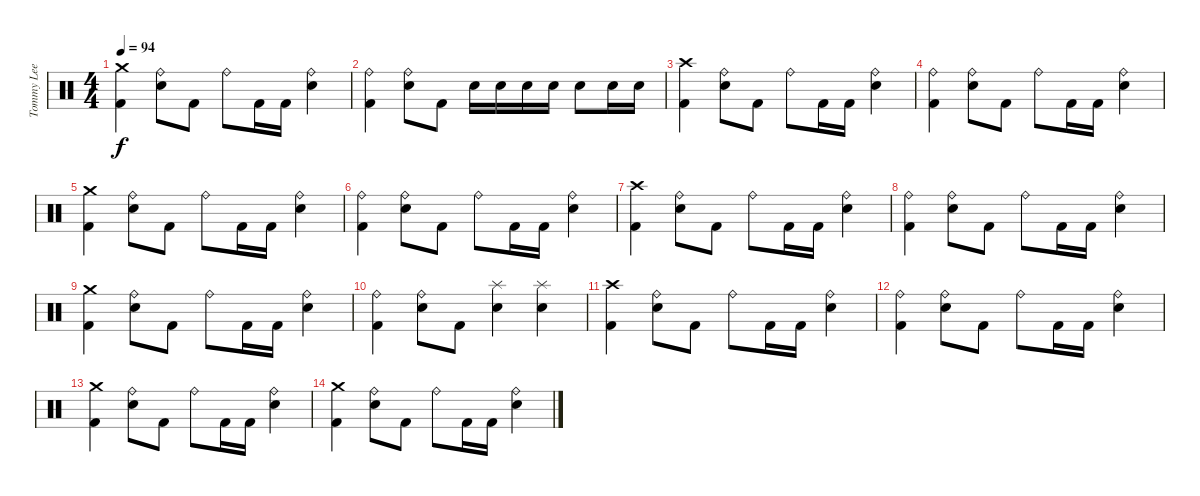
\track ("Tommy Lee" "Tommy Lee") {instrument percussion}
\staff {score}
\articulation defaults
\ts (4 4)
\tempo 94
\clef neutral
\ks c
("Crash medium (hit)" "Kick (hit) 2").4{dy f} ("Ride (bell)" "Snare (hit) 2").8 "Kick (hit) 2".8 "Ride (bell)".8 "Kick (hit) 2".16 "Kick (hit) 2".16 ("Ride (bell)" "Snare (hit) 2").4 |
("Ride (bell)" "Kick (hit) 2").4 ("Ride (bell)" "Snare (hit) 2").8 "Kick (hit) 2".8 "Snare (hit) 2".16 "Snare (hit) 2".16 "Snare (hit) 2".16 "Snare (hit) 2".16 "Snare (hit) 2".8 "Snare (hit) 2".16 "Snare (hit) 2".16 |
("Crash high (hit)" "Kick (hit) 2").4 ("Ride (bell)" "Snare (hit) 2").8 "Kick (hit) 2".8 "Ride (bell)".8 "Kick (hit) 2".16 "Kick (hit) 2".16 ("Ride (bell)" "Snare (hit) 2").4 |
("Ride (bell)" "Kick (hit) 2").4 ("Ride (bell)" "Snare (hit) 2").8 "Kick (hit) 2".8 "Ride (bell)".8 "Kick (hit) 2".16 "Kick (hit) 2".16 ("Ride (bell)" "Snare (hit) 2").4 |
("Crash medium (hit)" "Kick (hit) 2").4 ("Ride (bell)" "Snare (hit) 2").8 "Kick (hit) 2".8 "Ride (bell)".8 "Kick (hit) 2".16 "Kick (hit) 2".16 ("Ride (bell)" "Snare (hit) 2").4 |
("Ride (bell)" "Kick (hit) 2").4 ("Ride (bell)" "Snare (hit) 2").8 "Kick (hit) 2".8 "Ride (bell)".8 "Kick (hit) 2".16 "Kick (hit) 2".16 ("Ride (bell)" "Snare (hit) 2").4 |
("Crash high (hit)" "Kick (hit) 2").4 ("Ride (bell)" "Snare (hit) 2").8 "Kick (hit) 2".8 "Ride (bell)".8 "Kick (hit) 2".16 "Kick (hit) 2".16 ("Ride (bell)" "Snare (hit) 2").4 |
("Ride (bell)" "Kick (hit) 2").4 ("Ride (bell)" "Snare (hit) 2").8 "Kick (hit) 2".8 "Ride (bell)".8 "Kick (hit) 2".16 "Kick (hit) 2".16 ("Ride (bell)" "Snare (hit) 2").4 |
("Crash medium (hit)" "Kick (hit) 2").4 ("Ride (bell)" "Snare (hit) 2").8 "Kick (hit) 2".8 "Ride (bell)".8 "Kick (hit) 2".16 "Kick (hit) 2".16 ("Ride (bell)" "Snare (hit) 2").4 |
("Ride (bell)" "Kick (hit) 2").4 ("Ride (bell)" "Snare (hit) 2").8 "Kick (hit) 2".8 ("Splash (hit)" "Snare (hit) 2").4 ("Splash (hit)" "Snare (hit) 2").4 |
("Crash high (hit)" "Kick (hit) 2").4 ("Ride (bell)" "Snare (hit) 2").8 "Kick (hit) 2".8 "Ride (bell)".8 "Kick (hit) 2".16 "Kick (hit) 2".16 ("Ride (bell)" "Snare (hit) 2").4 |
("Ride (bell)" "Kick (hit) 2").4 ("Ride (bell)" "Snare (hit) 2").8 "Kick (hit) 2".8 "Ride (bell)".8 "Kick (hit) 2".16 "Kick (hit) 2".16 ("Ride (bell)" "Snare (hit) 2").4 |
("Crash medium (hit)" "Kick (hit) 2").4 ("Ride (bell)" "Snare (hit) 2").8 "Kick (hit) 2".8 "Ride (bell)".8 "Kick (hit) 2".16 "Kick (hit) 2".16 ("Ride (bell)" "Snare (hit) 2").4 |
("Crash medium (hit)" "Kick (hit) 2").4 ("Ride (bell)" "Snare (hit) 2").8 "Kick (hit) 2".8 "Ride (bell)".8 "Kick (hit) 2".16 "Kick (hit) 2".16 ("Ride (bell)" "Snare (hit) 2").4
